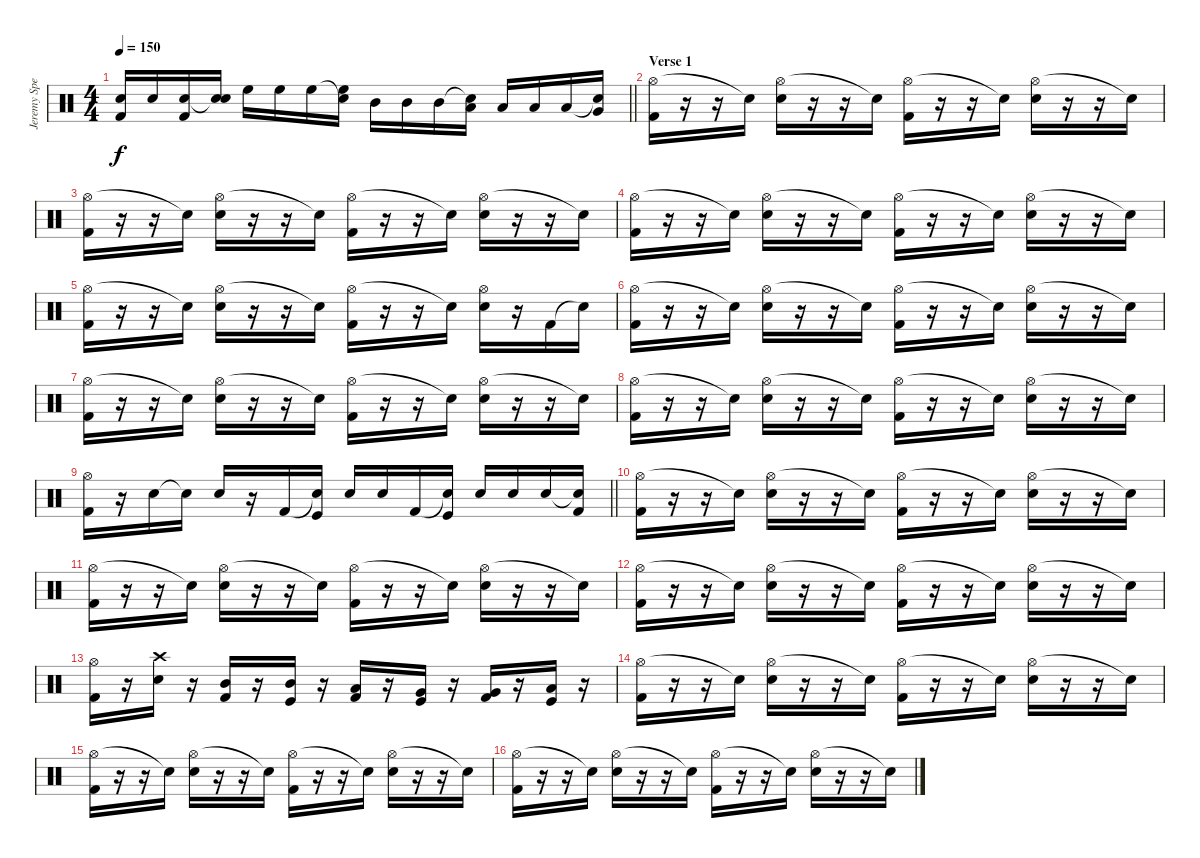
\track ("Jeremy Spencer" "Jeremy Spe") {instrument percussion}
\staff {score}
\articulation defaults
\ts (4 4)
\tempo 150
\clef neutral
\barLineRight lightlight
\ks c
("Snare (hit) 2" "Kick (hit) 2").16{dy f} "Snare (hit) 2".16 ("Snare (hit) 2" "Kick (hit) 2").16 ("Snare (hit)"{t} "Snare (hit) 2").16 "High Floor Tom (hit)".16 "High Floor Tom (hit)".16 "High Floor Tom (hit)".16 ("Snare (hit)"{t} "High Floor Tom (hit)").16 "Mid Tom (hit)".16 "Mid Tom (hit)".16 "Mid Tom (hit)".16 ("Snare (hit)"{t} "Low Tom (hit)").16 "Low Tom (hit)".16 "Low Tom (hit)".16 "Low Tom (hit)".16 ("Snare (hit)"{t} "Very Low Tom (hit)").16 |
\section ("" "Verse 1")
("Hi-Hat (open)" "Kick (hit) 2").16 r.16 r.16 "Snare (hit)"{t}.16 ("Hi-Hat (open)" "Snare (hit) 2").16 r.16 r.16 "Snare (hit)"{t}.16 ("Hi-Hat (open)" "Kick (hit) 2").16 r.16 r.16 "Snare (hit)"{t}.16 ("Hi-Hat (open)" "Snare (hit) 2").16 r.16 r.16 "Snare (hit)"{t}.16 |
("Hi-Hat (open)" "Kick (hit) 2").16 r.16 r.16 "Snare (hit)"{t}.16 ("Hi-Hat (open)" "Snare (hit) 2").16 r.16 r.16 "Snare (hit)"{t}.16 ("Hi-Hat (open)" "Kick (hit) 2").16 r.16 r.16 "Snare (hit)"{t}.16 ("Hi-Hat (open)" "Snare (hit) 2").16 r.16 r.16 "Snare (hit)"{t}.16 |
("Hi-Hat (open)" "Kick (hit) 2").16 r.16 r.16 "Snare (hit)"{t}.16 ("Hi-Hat (open)" "Snare (hit) 2").16 r.16 r.16 "Snare (hit)"{t}.16 ("Hi-Hat (open)" "Kick (hit) 2").16 r.16 r.16 "Snare (hit)"{t}.16 ("Hi-Hat (open)" "Snare (hit) 2").16 r.16 r.16 "Snare (hit)"{t}.16 |
("Hi-Hat (open)" "Kick (hit) 2").16 r.16 r.16 "Snare (hit)"{t}.16 ("Hi-Hat (open)" "Snare (hit) 2").16 r.16 r.16 "Snare (hit)"{t}.16 ("Hi-Hat (open)" "Kick (hit) 2").16 r.16 r.16 "Snare (hit)"{t}.16 ("Hi-Hat (open)" "Snare (hit) 2").16 r.16 "Kick (hit) 2".16 "Snare (hit)"{t}.16 |
("Hi-Hat (open)" "Kick (hit) 2").16 r.16 r.16 "Snare (hit)"{t}.16 ("Hi-Hat (open)" "Snare (hit) 2").16 r.16 r.16 "Snare (hit)"{t}.16 ("Hi-Hat (open)" "Kick (hit) 2").16 r.16 r.16 "Snare (hit)"{t}.16 ("Hi-Hat (open)" "Snare (hit) 2").16 r.16 r.16 "Snare (hit)"{t}.16 |
("Hi-Hat (open)" "Kick (hit) 2").16 r.16 r.16 "Snare (hit)"{t}.16 ("Hi-Hat (open)" "Snare (hit) 2").16 r.16 r.16 "Snare (hit)"{t}.16 ("Hi-Hat (open)" "Kick (hit) 2").16 r.16 r.16 "Snare (hit)"{t}.16 ("Hi-Hat (open)" "Snare (hit) 2").16 r.16 r.16 "Snare (hit)"{t}.16 |
("Hi-Hat (open)" "Kick (hit) 2").16 r.16 r.16 "Snare (hit)"{t}.16 ("Hi-Hat (open)" "Snare (hit) 2").16 r.16 r.16 "Snare (hit)"{t}.16 ("Hi-Hat (open)" "Kick (hit) 2").16 r.16 r.16 "Snare (hit)"{t}.16 ("Hi-Hat (open)" "Snare (hit) 2").16 r.16 r.16 "Snare (hit)"{t}.16 |
\barLineRight lightlight
("Hi-Hat (open)" "Kick (hit) 2").16 r.16 "Snare (hit) 2".16 "Snare (hit)"{t}.16 "Snare (hit) 2".16 r.16 "Kick (hit) 2".16 ("Snare (hit)"{t} "Kick (hit)").16 "Snare (hit) 2".16 "Snare (hit) 2".16 "Kick (hit) 2".16 ("Snare (hit)"{t} "Kick (hit)").16 "Snare (hit) 2".16 "Snare (hit) 2".16 "Snare (hit) 2".16 ("Snare (hit)"{t} "Kick (hit) 2").16 |
("Hi-Hat (open)" "Kick (hit) 2").16 r.16 r.16 "Snare (hit)"{t}.16 ("Hi-Hat (open)" "Snare (hit) 2").16 r.16 r.16 "Snare (hit)"{t}.16 ("Hi-Hat (open)" "Kick (hit) 2").16 r.16 r.16 "Snare (hit)"{t}.16 ("Hi-Hat (open)" "Snare (hit) 2").16 r.16 r.16 "Snare (hit)"{t}.16 |
("Hi-Hat (open)" "Kick (hit) 2").16 r.16 r.16 "Snare (hit)"{t}.16 ("Hi-Hat (open)" "Snare (hit) 2").16 r.16 r.16 "Snare (hit)"{t}.16 ("Hi-Hat (open)" "Kick (hit) 2").16 r.16 r.16 "Snare (hit)"{t}.16 ("Hi-Hat (open)" "Snare (hit) 2").16 r.16 r.16 "Snare (hit)"{t}.16 |
("Hi-Hat (open)" "Kick (hit) 2").16 r.16 r.16 "Snare (hit)"{t}.16 ("Hi-Hat (open)" "Snare (hit) 2").16 r.16 r.16 "Snare (hit)"{t}.16 ("Hi-Hat (open)" "Kick (hit) 2").16 r.16 r.16 "Snare (hit)"{t}.16 ("Hi-Hat (open)" "Snare (hit) 2").16 r.16 r.16 "Snare (hit)"{t}.16 |
("Hi-Hat (open)" "Kick (hit) 2").16 r.16 ("Crash high (hit)" "Snare (hit) 2").16 r.16 ("Mid Tom (hit)" "Kick (hit) 2").16 r.16 ("Mid Tom (hit)" "Kick (hit)").16 r.16 ("Low Tom (hit)" "Kick (hit) 2").16 r.16 ("Very Low Tom (hit)" "Kick (hit)").16 r.16 ("Very Low Tom (hit)" "Kick (hit) 2").16 r.16 ("Low Floor Tom (hit)" "Kick (hit)").16 r.16 |
("Hi-Hat (open)" "Kick (hit) 2").16 r.16 r.16 "Snare (hit)"{t}.16 ("Hi-Hat (open)" "Snare (hit) 2").16 r.16 r.16 "Snare (hit)"{t}.16 ("Hi-Hat (open)" "Kick (hit) 2").16 r.16 r.16 "Snare (hit)"{t}.16 ("Hi-Hat (open)" "Snare (hit) 2").16 r.16 r.16 "Snare (hit)"{t}.16 |
("Hi-Hat (open)" "Kick (hit) 2").16 r.16 r.16 "Snare (hit)"{t}.16 ("Hi-Hat (open)" "Snare (hit) 2").16 r.16 r.16 "Snare (hit)"{t}.16 ("Hi-Hat (open)" "Kick (hit) 2").16 r.16 r.16 "Snare (hit)"{t}.16 ("Hi-Hat (open)" "Snare (hit) 2").16 r.16 r.16 "Snare (hit)"{t}.16 |
("Hi-Hat (open)" "Kick (hit) 2").16 r.16 r.16 "Snare (hit)"{t}.16 ("Hi-Hat (open)" "Snare (hit) 2").16 r.16 r.16 "Snare (hit)"{t}.16 ("Hi-Hat (open)" "Kick (hit) 2").16 r.16 r.16 "Snare (hit)"{t}.16 ("Hi-Hat (open)" "Snare (hit) 2").16 r.16 r.16 "Snare (hit)"{t}.16
